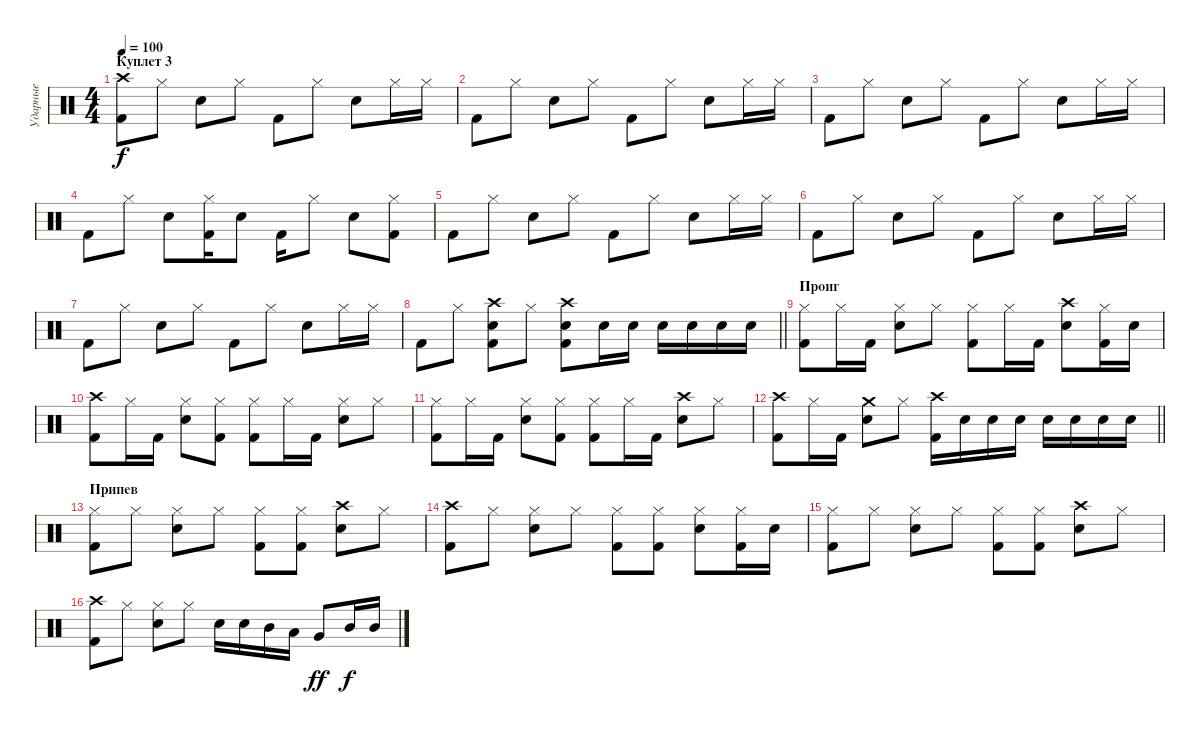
\track ("Ударные" "Ударные") {instrument percussion}
\staff {score}
\articulation defaults
\ts (4 4)
\section ("" "Куплет 3")
\tempo 100
\clef neutral
\ks c
("Crash high (hit)" "Kick (hit) 2").8{dy f} "Hi-Hat (closed)".8 "Electric Snare (hit)".8 "Hi-Hat (closed)".8 "Kick (hit) 2".8 "Hi-Hat (closed)".8 "Electric Snare (hit)".8 "Hi-Hat (closed)".16 "Hi-Hat (closed)".16 |
"Kick (hit) 2".8 "Hi-Hat (closed)".8 "Electric Snare (hit)".8 "Hi-Hat (closed)".8 "Kick (hit) 2".8 "Hi-Hat (closed)".8 "Electric Snare (hit)".8 "Hi-Hat (closed)".16 "Hi-Hat (closed)".16 |
"Kick (hit) 2".8 "Hi-Hat (closed)".8 "Electric Snare (hit)".8 "Hi-Hat (closed)".8 "Kick (hit) 2".8 "Hi-Hat (closed)".8 "Electric Snare (hit)".8 "Hi-Hat (closed)".16 "Hi-Hat (closed)".16 |
"Kick (hit) 2".8 "Hi-Hat (closed)".8 "Electric Snare (hit)".8 ("Hi-Hat (closed)" "Kick (hit) 2").16 "Electric Snare (hit)".8 "Kick (hit) 2".16 "Hi-Hat (closed)".8 "Electric Snare (hit)".8 ("Hi-Hat (closed)" "Kick (hit) 2").8 |
"Kick (hit) 2".8 "Hi-Hat (closed)".8 "Electric Snare (hit)".8 "Hi-Hat (closed)".8 "Kick (hit) 2".8 "Hi-Hat (closed)".8 "Electric Snare (hit)".8 "Hi-Hat (closed)".16 "Hi-Hat (closed)".16 |
"Kick (hit) 2".8 "Hi-Hat (closed)".8 "Electric Snare (hit)".8 "Hi-Hat (closed)".8 "Kick (hit) 2".8 "Hi-Hat (closed)".8 "Electric Snare (hit)".8 "Hi-Hat (closed)".16 "Hi-Hat (closed)".16 |
"Kick (hit) 2".8 "Hi-Hat (closed)".8 "Electric Snare (hit)".8 "Hi-Hat (closed)".8 "Kick (hit) 2".8 "Hi-Hat (closed)".8 "Electric Snare (hit)".8 "Hi-Hat (closed)".16 "Hi-Hat (closed)".16 |
\barLineRight lightlight "Kick (hit) 2".8 "Hi-Hat (closed)".8
("Crash high (hit)" "Electric Snare (hit)" "Kick (hit) 2").8 "Hi-Hat (closed)".8 ("Crash high (hit)" "Electric Snare (hit)" "Kick (hit) 2").8 "Electric Snare (hit)".16 "Electric Snare (hit)".16 "Electric Snare (hit)".16 "Electric Snare (hit)".16 "Electric Snare (hit)".16 "Electric Snare (hit)".16 |
\section ("" "Проиг")
("Hi-Hat (closed)" "Kick (hit) 2").8 "Hi-Hat (closed)".16 "Kick (hit) 2".16 ("Hi-Hat (closed)" "Electric Snare (hit)").8 "Hi-Hat (closed)".8 ("Hi-Hat (closed)" "Kick (hit) 2").8 "Hi-Hat (closed)".16 "Kick (hit) 2".16 ("Crash high (hit)" "Electric Snare (hit)").8 ("Hi-Hat (closed)" "Kick (hit) 2").16 "Electric Snare (hit)".16 |
("Crash high (hit)" "Kick (hit) 2").8 "Hi-Hat (closed)".16 "Kick (hit) 2".16 ("Hi-Hat (closed)" "Electric Snare (hit)").8 ("Hi-Hat (closed)" "Kick (hit) 2").8 ("Hi-Hat (closed)" "Kick (hit) 2").8 "Hi-Hat (closed)".16 "Kick (hit) 2".16 ("Hi-Hat (closed)" "Electric Snare (hit)").8 "Hi-Hat (closed)".8 |
("Hi-Hat (closed)" "Kick (hit) 2").8 "Hi-Hat (closed)".16 "Kick (hit) 2".16 ("Hi-Hat (closed)" "Electric Snare (hit)").8 ("Hi-Hat (closed)" "Kick (hit) 2").8 ("Hi-Hat (closed)" "Kick (hit) 2").8 "Hi-Hat (closed)".16 "Kick (hit) 2".16 ("Crash high (hit)" "Electric Snare (hit)").8 "Hi-Hat (closed)".8 |
\barLineRight lightlight
("Crash high (hit)" "Kick (hit) 2").8 "Hi-Hat (closed)".16 "Kick (hit) 2".16 ("Crash medium (hit)" "Electric Snare (hit)").8 "Hi-Hat (closed)".8 ("Crash high (hit)" "Kick (hit) 2").16 "Electric Snare (hit)".16 "Electric Snare (hit)".16 "Electric Snare (hit)".16 "Electric Snare (hit)".16 "Electric Snare (hit)".16 "Electric Snare (hit)".16 "Electric Snare (hit)".16 |
\section ("" "Припев")
("Hi-Hat (closed)" "Kick (hit) 2").8 "Hi-Hat (closed)".8 ("Hi-Hat (closed)" "Electric Snare (hit)").8 "Hi-Hat (closed)".8 ("Hi-Hat (closed)" "Kick (hit) 2").8 ("Hi-Hat (closed)" "Kick (hit) 2").8 ("Crash high (hit)" "Electric Snare (hit)").8 "Hi-Hat (closed)".8 |
("Crash high (hit)" "Kick (hit) 2").8 "Hi-Hat (closed)".8 ("Hi-Hat (closed)" "Electric Snare (hit)").8 "Hi-Hat (closed)".8 ("Hi-Hat (closed)" "Kick (hit) 2").8 ("Hi-Hat (closed)" "Kick (hit) 2").8 ("Hi-Hat (closed)" "Electric Snare (hit)").8 ("Hi-Hat (closed)" "Kick (hit) 2").16 "Electric Snare (hit)".16 |
("Hi-Hat (closed)" "Kick (hit) 2").8 "Hi-Hat (closed)".8 ("Hi-Hat (closed)" "Electric Snare (hit)").8 "Hi-Hat (closed)".8 ("Hi-Hat (closed)" "Kick (hit) 2").8 ("Hi-Hat (closed)" "Kick (hit) 2").8 ("Crash high (hit)" "Electric Snare (hit)").8 "Hi-Hat (closed)".8 |
("Crash high (hit)" "Kick (hit) 2").8 "Hi-Hat (closed)".8 ("Hi-Hat (closed)" "Electric Snare (hit)").8 "Hi-Hat (closed)".8 "Electric Snare (hit)".16 "Electric Snare (hit)".16 "Mid Tom (hit)".16 "Low Tom (hit)".16 "Very Low Tom (hit)".8{dy ff} "Mid Tom (hit)".16{dy f} "Mid Tom (hit)".16
